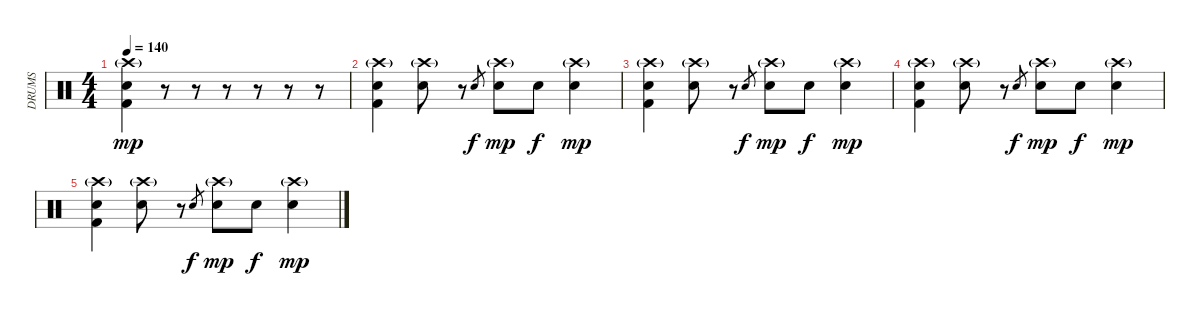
\track ("DRUMS" "DRUMS") {instrument percussion}
\staff {score}
\articulation defaults
\ts (4 4)
\tempo 140
\clef neutral
\ks c
("Kick (hit) 2" "Electric Snare (hit)" "Crash high (hit)"{g}).4{dy mp} r.8 r.8 r.8 r.8 r.8 r.8 |
("Kick (hit) 2" "Electric Snare (hit)" "Crash high (hit)"{g}).4 ("Electric Snare (hit)" "Crash high (hit)"{g}).8 r.8 "Electric Snare (hit)".8{gr dy f} ("Electric Snare (hit)" "Crash high (hit)"{g}).8{dy mp} "Electric Snare (hit)".8{dy f} ("Electric Snare (hit)" "Crash high (hit)"{g}).4{dy mp} |
("Kick (hit) 2" "Electric Snare (hit)" "Crash high (hit)"{g}).4 ("Electric Snare (hit)" "Crash high (hit)"{g}).8 r.8 "Electric Snare (hit)".8{gr dy f} ("Electric Snare (hit)" "Crash high (hit)"{g}).8{dy mp} "Electric Snare (hit)".8{dy f} ("Electric Snare (hit)" "Crash high (hit)"{g}).4{dy mp} |
("Kick (hit) 2" "Electric Snare (hit)" "Crash high (hit)"{g}).4 ("Electric Snare (hit)" "Crash high (hit)"{g}).8 r.8 "Electric Snare (hit)".8{gr dy f} ("Electric Snare (hit)" "Crash high (hit)"{g}).8{dy mp} "Electric Snare (hit)".8{dy f} ("Electric Snare (hit)" "Crash high (hit)"{g}).4{dy mp} |
("Kick (hit) 2" "Electric Snare (hit)" "Crash high (hit)"{g}).4 ("Electric Snare (hit)" "Crash high (hit)"{g}).8 r.8 "Electric Snare (hit)".8{gr dy f} ("Electric Snare (hit)" "Crash high (hit)"{g}).8{dy mp} "Electric Snare (hit)".8{dy f} ("Electric Snare (hit)" "Crash high (hit)"{g}).4{dy mp}
